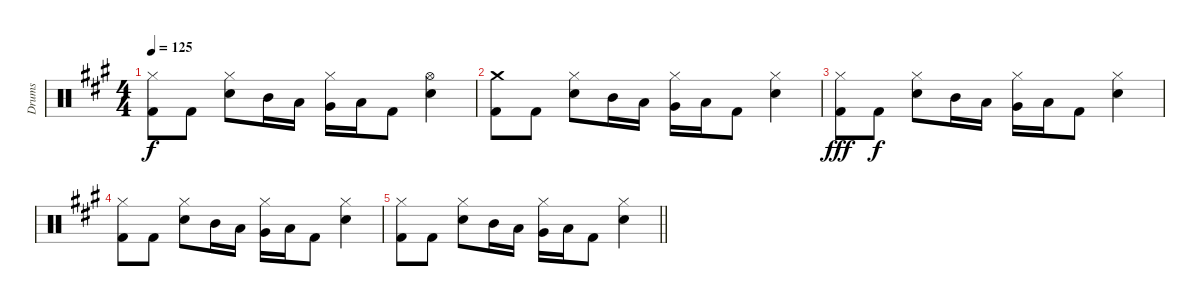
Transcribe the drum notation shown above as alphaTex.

\track ("Drums" "Drums") {instrument percussion}
\staff {score}
\articulation defaults
\ts (4 4)
\tempo 125
\clef neutral
\ks a
("Hi-Hat (closed)" "Kick (hit) 2").8{dy f} "Kick (hit) 2".8 ("Hi-Hat (closed)" "Snare (hit) 2").8 "Mid Tom (hit)".16 "Low Tom (hit)".16 ("Hi-Hat (closed)" "Very Low Tom (hit)").16 "Low Floor Tom (hit)".16 "Kick (hit) 2".8 ("Hi-Hat (open)" "Snare (hit) 2").4 |
("Crash medium (hit)" "Kick (hit) 2").8 "Kick (hit) 2".8 ("Hi-Hat (closed)" "Snare (hit) 2").8 "Mid Tom (hit)".16 "Low Tom (hit)".16 ("Hi-Hat (closed)" "Very Low Tom (hit)").16 "Low Floor Tom (hit)".16 "Kick (hit) 2".8 ("Hi-Hat (closed)" "Snare (hit) 2").4 |
("Hi-Hat (closed)" "Kick (hit) 2").8{dy fff} "Kick (hit) 2".8{dy f} ("Hi-Hat (closed)" "Snare (hit) 2").8 "Mid Tom (hit)".16 "Low Tom (hit)".16 ("Hi-Hat (closed)" "Very Low Tom (hit)").16 "Low Floor Tom (hit)".16 "Kick (hit) 2".8 ("Hi-Hat (closed)" "Snare (hit) 2").4 |
("Hi-Hat (closed)" "Kick (hit) 2").8 "Kick (hit) 2".8 ("Hi-Hat (closed)" "Snare (hit) 2").8 "Mid Tom (hit)".16 "Low Tom (hit)".16 ("Hi-Hat (closed)" "Very Low Tom (hit)").16 "Low Floor Tom (hit)".16 "Kick (hit) 2".8 ("Hi-Hat (closed)" "Snare (hit) 2").4 |
\barLineRight lightlight
("Hi-Hat (closed)" "Kick (hit) 2").8 "Kick (hit) 2".8 ("Hi-Hat (closed)" "Snare (hit) 2").8 "Mid Tom (hit)".16 "Low Tom (hit)".16 ("Hi-Hat (closed)" "Very Low Tom (hit)").16 "Low Floor Tom (hit)".16 "Kick (hit) 2".8 ("Hi-Hat (closed)" "Snare (hit) 2").4
